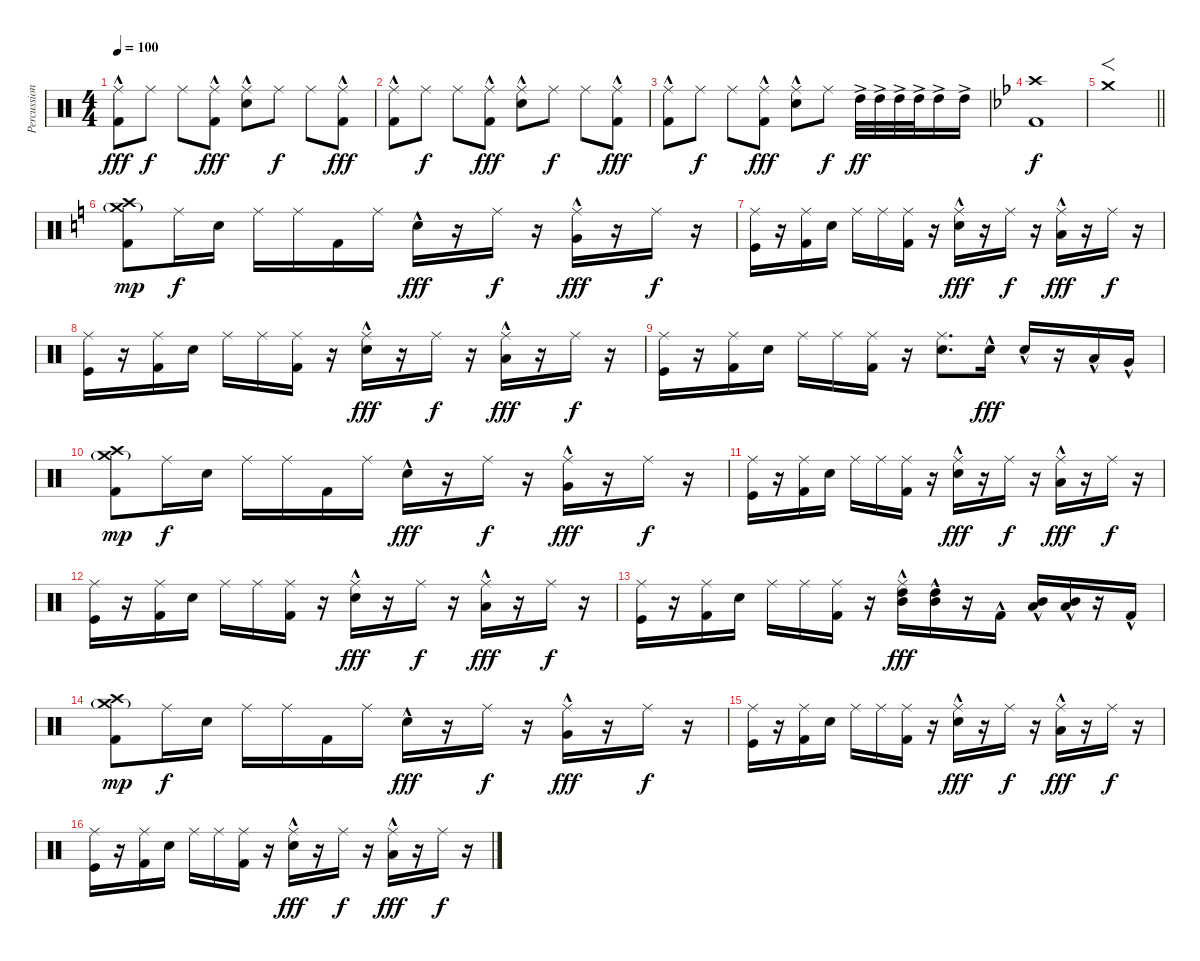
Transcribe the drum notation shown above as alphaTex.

\track ("Percussion" "Percussion") {instrument percussion}
\staff {score}
\articulation defaults
\ts (4 4)
\tempo 100
\clef neutral
\ks c
("Ride (middle)" "Kick (hit) 2"{hac}).8{dy fff} "Ride (middle)".8{dy f} "Ride (middle)".8 ("Ride (middle)" "Kick (hit) 2"{hac}).8{dy fff} ("Ride (middle)" "Electric Snare (hit)"{hac}).8 "Ride (middle)".8{dy f} "Ride (middle)".8 ("Ride (middle)" "Kick (hit) 2"{hac}).8{dy fff} |
("Ride (middle)" "Kick (hit) 2"{hac}).8 "Ride (middle)".8{dy f} "Ride (middle)".8 ("Ride (middle)" "Kick (hit) 2"{hac}).8{dy fff} ("Ride (middle)" "Electric Snare (hit)"{hac}).8 "Ride (middle)".8{dy f} "Ride (middle)".8 ("Ride (middle)" "Kick (hit) 2"{hac}).8{dy fff} |
("Ride (middle)" "Kick (hit) 2"{hac}).8 "Ride (middle)".8{dy f} "Ride (middle)".8 ("Ride (middle)" "Kick (hit) 2"{hac}).8{dy fff} ("Ride (middle)" "Electric Snare (hit)"{hac}).8 "Ride (middle)".8{dy f} "High Tom (hit)"{ac}.32{dy ff} "High Tom (hit)"{ac}.32 "High Tom (hit)"{ac}.32 "High Tom (hit)"{ac}.32 "High Tom (hit)"{ac}.16 "High Tom (hit)"{ac}.16 |
\ks bb
("Crash high (hit)" "Kick (hit) 2").1{dy f} |
\barLineRight lightlight "Crash medium (hit)".1{f}
|
\ks c
("Crash high (hit)" "Crash medium (hit)"{g} "Kick (hit) 2").8{dy mp} "Ride (middle)".16{dy f} "Electric Snare (hit)".16 "Ride (middle)".16 "Ride (middle)".16 "Kick (hit) 2".16 "Ride (middle)".16 "Electric Snare (hit)"{hac}.16{dy fff} r.16 "Ride (middle)".16{dy f} r.16 ("Ride (middle)" "Very Low Tom (hit)"{hac}).16{dy fff} r.16 "Ride (middle)".16{dy f} r.16 |
("Ride (middle)" "Kick (hit)").16 r.16 ("Ride (middle)" "Kick (hit) 2").16 "Electric Snare (hit)".16 "Ride (middle)".16 "Ride (middle)".16 ("Ride (middle)" "Kick (hit) 2").16 r.16 ("Ride (middle)" "Electric Snare (hit)"{hac}).16{dy fff} r.16 "Ride (middle)".16{dy f} r.16 ("Ride (middle)" "Low Floor Tom (hit)"{hac}).16{dy fff} r.16 "Ride (middle)".16{dy f} r.16 |
("Ride (middle)" "Kick (hit)").16 r.16 ("Ride (middle)" "Kick (hit) 2").16 "Electric Snare (hit)".16 "Ride (middle)".16 "Ride (middle)".16 ("Ride (middle)" "Kick (hit) 2").16 r.16 ("Ride (middle)" "Electric Snare (hit)"{hac}).16{dy fff} r.16 "Ride (middle)".16{dy f} r.16 ("Ride (middle)" "Low Tom (hit)"{hac}).16{dy fff} r.16 "Ride (middle)".16{dy f} r.16 |
("Ride (middle)" "Kick (hit)").16 r.16 ("Ride (middle)" "Kick (hit) 2").16 "Electric Snare (hit)".16 "Ride (middle)".16 "Ride (middle)".16 ("Ride (middle)" "Kick (hit) 2").16 r.16 ("Ride (middle)" "Electric Snare (hit)").8{d} "Electric Snare (hit)"{hac}.16{dy fff} "Electric Snare (hit)"{hac}.16 r.16 "Low Tom (hit)"{hac}.16 "Very Low Tom (hit)"{hac}.16 |
("Crash high (hit)" "Crash medium (hit)"{g} "Kick (hit) 2").8{dy mp} "Ride (middle)".16{dy f} "Electric Snare (hit)".16 "Ride (middle)".16 "Ride (middle)".16 "Kick (hit) 2".16 "Ride (middle)".16 "Electric Snare (hit)"{hac}.16{dy fff} r.16 "Ride (middle)".16{dy f} r.16 ("Ride (middle)" "Very Low Tom (hit)"{hac}).16{dy fff} r.16 "Ride (middle)".16{dy f} r.16 |
("Ride (middle)" "Kick (hit)").16 r.16 ("Ride (middle)" "Kick (hit) 2").16 "Electric Snare (hit)".16 "Ride (middle)".16 "Ride (middle)".16 ("Ride (middle)" "Kick (hit) 2").16 r.16 ("Ride (middle)" "Electric Snare (hit)"{hac}).16{dy fff} r.16 "Ride (middle)".16{dy f} r.16 ("Ride (middle)" "Low Floor Tom (hit)"{hac}).16{dy fff} r.16 "Ride (middle)".16{dy f} r.16 |
("Ride (middle)" "Kick (hit)").16 r.16 ("Ride (middle)" "Kick (hit) 2").16 "Electric Snare (hit)".16 "Ride (middle)".16 "Ride (middle)".16 ("Ride (middle)" "Kick (hit) 2").16 r.16 ("Ride (middle)" "Electric Snare (hit)"{hac}).16{dy fff} r.16 "Ride (middle)".16{dy f} r.16 ("Ride (middle)" "Low Tom (hit)"{hac}).16{dy fff} r.16 "Ride (middle)".16{dy f} r.16 |
("Ride (middle)" "Kick (hit)").16 r.16 ("Ride (middle)" "Kick (hit) 2").16 "Electric Snare (hit)".16 "Ride (middle)".16 "Ride (middle)".16 ("Ride (middle)" "Kick (hit) 2").16 r.16 ("Ride (middle)"{hac} "High Tom (hit)"{hac} "Mid Tom (hit)").16{dy fff} ("High Tom (hit)"{hac} "Mid Tom (hit)").16 r.16 "Kick (hit) 2"{hac}.16 ("Mid Tom (hit)"{hac} "Low Tom (hit)").16 ("Mid Tom (hit)"{hac} "Low Tom (hit)").16 r.16 "Kick (hit) 2"{hac}.16 |
("Crash high (hit)" "Crash medium (hit)"{g} "Kick (hit) 2").8{dy mp} "Ride (middle)".16{dy f} "Electric Snare (hit)".16 "Ride (middle)".16 "Ride (middle)".16 "Kick (hit) 2".16 "Ride (middle)".16 "Electric Snare (hit)"{hac}.16{dy fff} r.16 "Ride (middle)".16{dy f} r.16 ("Ride (middle)" "Very Low Tom (hit)"{hac}).16{dy fff} r.16 "Ride (middle)".16{dy f} r.16 |
("Ride (middle)" "Kick (hit)").16 r.16 ("Ride (middle)" "Kick (hit) 2").16 "Electric Snare (hit)".16 "Ride (middle)".16 "Ride (middle)".16 ("Ride (middle)" "Kick (hit) 2").16 r.16 ("Ride (middle)" "Electric Snare (hit)"{hac}).16{dy fff} r.16 "Ride (middle)".16{dy f} r.16 ("Ride (middle)" "Low Floor Tom (hit)"{hac}).16{dy fff} r.16 "Ride (middle)".16{dy f} r.16 |
("Ride (middle)" "Kick (hit)").16 r.16 ("Ride (middle)" "Kick (hit) 2").16 "Electric Snare (hit)".16 "Ride (middle)".16 "Ride (middle)".16 ("Ride (middle)" "Kick (hit) 2").16 r.16 ("Ride (middle)" "Electric Snare (hit)"{hac}).16{dy fff} r.16 "Ride (middle)".16{dy f} r.16 ("Ride (middle)" "Low Tom (hit)"{hac}).16{dy fff} r.16 "Ride (middle)".16{dy f} r.16
